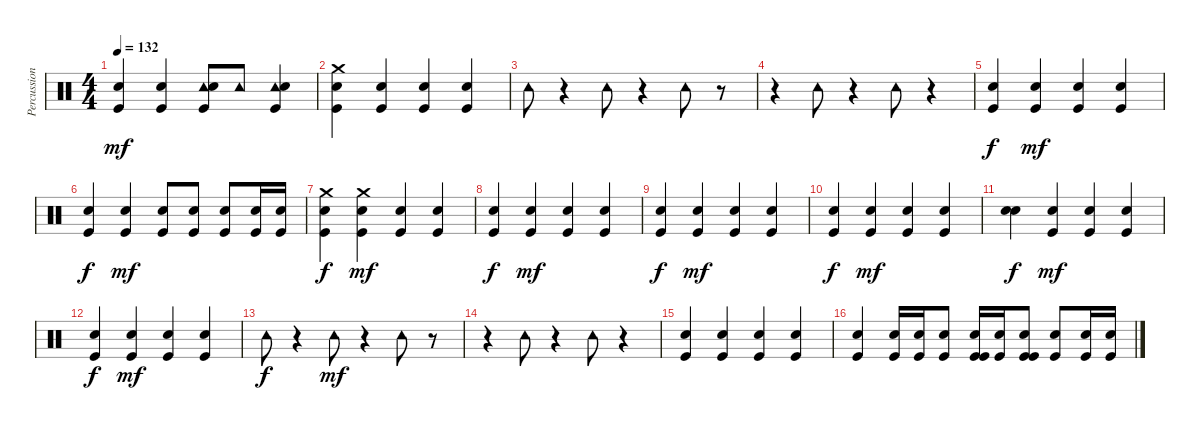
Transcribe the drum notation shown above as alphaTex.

\track ("Percussion" "Percussion") {instrument percussion}
\staff {score}
\articulation defaults
\ts (4 4)
\tempo 132
\clef neutral
\ks c
("Kick (hit)" "Snare (hit) 2").4{dy mf} ("Kick (hit)" "Snare (hit) 2").4 ("Tambourine (hit)" "Kick (hit)" "Snare (hit) 2").8 "Tambourine (hit)".8 ("Tambourine (hit)" "Kick (hit)" "Snare (hit) 2").4 |
("Snare (hit) 2" "Crash medium (hit)" "Kick (hit)").4 ("Kick (hit)" "Snare (hit) 2").4 ("Kick (hit)" "Snare (hit) 2").4 ("Kick (hit)" "Snare (hit) 2").4 |
"Tambourine (hit)".8 r.4 "Tambourine (hit)".8 r.4 "Tambourine (hit)".8 r.8 |
r.4 "Tambourine (hit)".8 r.4 "Tambourine (hit)".8 r.4 |
("Snare (hit) 2" "Kick (hit)").4{dy f} ("Snare (hit) 2" "Kick (hit)").4{dy mf} ("Snare (hit) 2" "Kick (hit)").4 ("Kick (hit)" "Snare (hit) 2").4 |
("Kick (hit)" "Snare (hit) 2").4{dy f} ("Kick (hit)" "Snare (hit) 2").4{dy mf} ("Kick (hit)" "Snare (hit) 2").8 ("Kick (hit)" "Snare (hit) 2").8 ("Kick (hit)" "Snare (hit) 2").8 ("Kick (hit)" "Snare (hit) 2").16 ("Kick (hit)" "Snare (hit) 2").16 |
("Snare (hit) 2" "Crash medium (hit)" "Kick (hit)").4{dy f} ("Crash medium (hit)" "Kick (hit)" "Snare (hit) 2").4{dy mf} ("Kick (hit)" "Snare (hit) 2").4 ("Kick (hit)" "Snare (hit) 2").4 |
("Kick (hit)" "Snare (hit) 2").4{dy f} ("Kick (hit)" "Snare (hit) 2").4{dy mf} ("Kick (hit)" "Snare (hit) 2").4 ("Kick (hit)" "Snare (hit) 2").4 |
("Kick (hit)" "Snare (hit) 2").4{dy f} ("Kick (hit)" "Snare (hit) 2").4{dy mf} ("Snare (hit) 2" "Kick (hit)").4 ("Kick (hit)" "Snare (hit) 2").4 |
("Snare (hit) 2" "Kick (hit)").4{dy f} ("Kick (hit)" "Snare (hit) 2").4{dy mf} ("Snare (hit) 2" "Kick (hit)").4 ("Snare (hit) 2" "Kick (hit)").4 |
("Snare (hit) 2" "Snare (hit) 2").4{dy f} ("Snare (hit) 2" "Kick (hit)").4{dy mf} ("Snare (hit) 2" "Kick (hit)").4 ("Snare (hit) 2" "Kick (hit)").4 |
("Snare (hit) 2" "Kick (hit)").4{dy f} ("Kick (hit)" "Snare (hit) 2").4{dy mf} ("Kick (hit)" "Snare (hit) 2").4 ("Kick (hit)" "Snare (hit) 2").4 |
"Tambourine (hit)".8{dy f} r.4 "Tambourine (hit)".8{dy mf} r.4 "Tambourine (hit)".8 r.8 |
r.4 "Tambourine (hit)".8 r.4 "Tambourine (hit)".8 r.4 |
("Snare (hit) 2" "Kick (hit)").4 ("Snare (hit) 2" "Kick (hit)").4 ("Snare (hit) 2" "Kick (hit)").4 ("Kick (hit)" "Snare (hit) 2").4 |
("Kick (hit)" "Snare (hit) 2").4 ("Kick (hit)" "Snare (hit) 2").16 ("Kick (hit)" "Snare (hit) 2").16 ("Kick (hit)" "Snare (hit) 2").8 ("Kick (hit)" "Snare (hit) 2" "Kick (hit)").16 ("Kick (hit)" "Snare (hit) 2").16 ("Kick (hit)" "Snare (hit) 2" "Kick (hit)").8 ("Kick (hit)" "Snare (hit) 2").8 ("Kick (hit)" "Snare (hit) 2").16 ("Kick (hit)" "Snare (hit) 2").16
